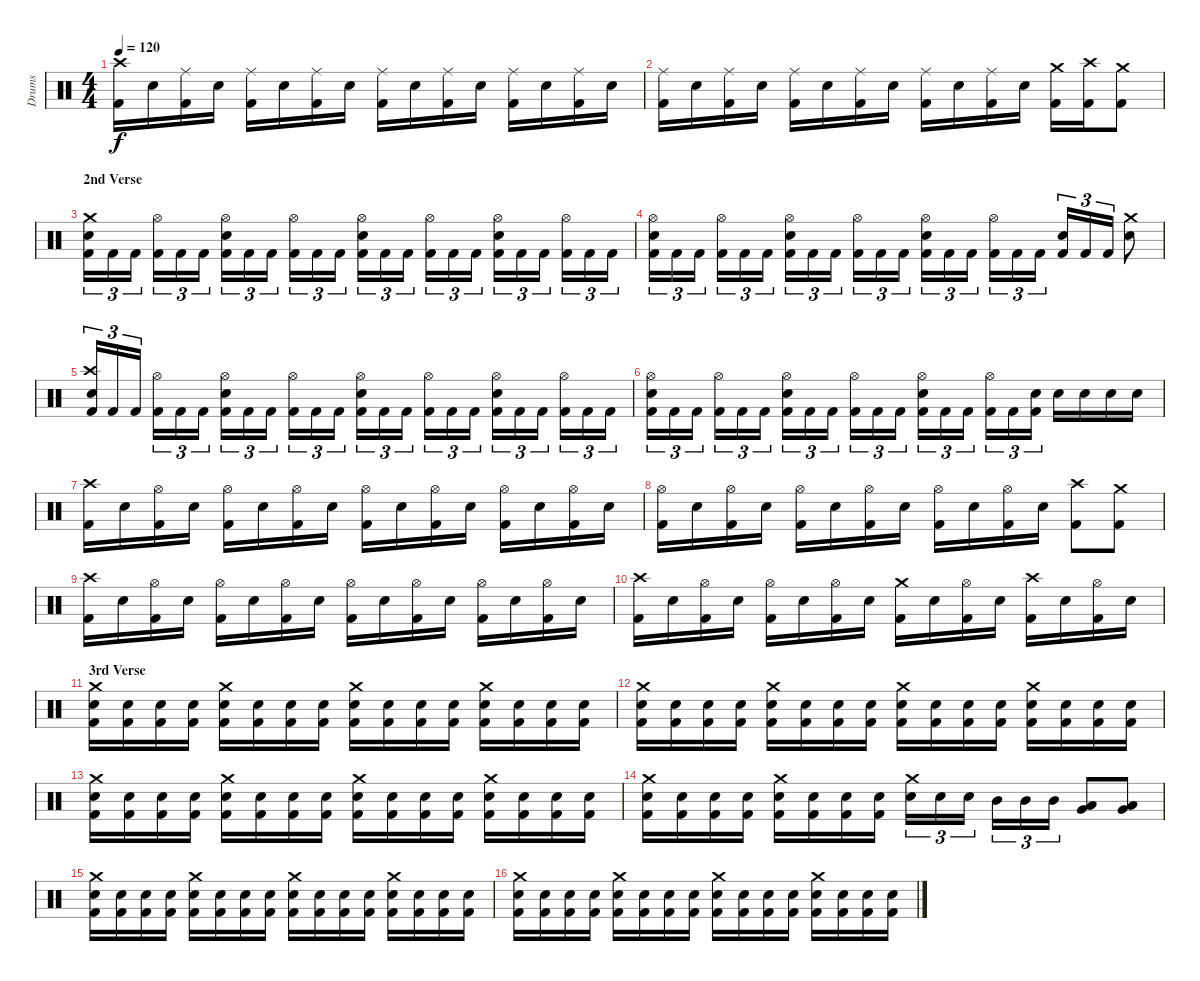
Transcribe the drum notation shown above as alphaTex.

\track ("Drums" "Drums") {instrument percussion}
\staff {score}
\articulation defaults
\ts (4 4)
\tempo 120
\clef neutral
\ks c
("Kick (hit) 2" "Crash high (hit)").16{dy f} "Electric Snare (hit)".16 ("Kick (hit) 2" "Ride (middle)").16 "Electric Snare (hit)".16 ("Kick (hit) 2" "Ride (middle)").16 "Electric Snare (hit)".16 ("Kick (hit) 2" "Ride (middle)").16 "Electric Snare (hit)".16 ("Kick (hit) 2" "Ride (middle)").16 "Electric Snare (hit)".16 ("Kick (hit) 2" "Ride (middle)").16 "Electric Snare (hit)".16 ("Kick (hit) 2" "Ride (middle)").16 "Electric Snare (hit)".16 ("Kick (hit) 2" "Ride (middle)").16 "Electric Snare (hit)".16 |
("Kick (hit) 2" "Ride (middle)").16 "Electric Snare (hit)".16 ("Kick (hit) 2" "Ride (middle)").16 "Electric Snare (hit)".16 ("Kick (hit) 2" "Ride (middle)").16 "Electric Snare (hit)".16 ("Kick (hit) 2" "Ride (middle)").16 "Electric Snare (hit)".16 ("Kick (hit) 2" "Ride (middle)").16 "Electric Snare (hit)".16 ("Kick (hit) 2" "Ride (middle)").16 "Electric Snare (hit)".16 ("Kick (hit) 2" "Crash medium (hit)").16 ("Kick (hit) 2" "Crash high (hit)").16 ("Kick (hit) 2" "Crash medium (hit)").8 |
\section ("" "2nd Verse")
("Kick (hit) 2" "Electric Snare (hit)" "Crash medium (hit)").16{tu (3 2)} "Kick (hit) 2".16{tu (3 2)} "Kick (hit) 2".16{tu (3 2)} ("Kick (hit) 2" "Hi-Hat (open)").16{tu (3 2)} "Kick (hit) 2".16{tu (3 2)} "Kick (hit) 2".16{tu (3 2)} ("Kick (hit) 2" "Electric Snare (hit)" "Hi-Hat (open)").16{tu (3 2)} "Kick (hit) 2".16{tu (3 2)} "Kick (hit) 2".16{tu (3 2)} ("Kick (hit) 2" "Hi-Hat (open)").16{tu (3 2)} "Kick (hit) 2".16{tu (3 2)} "Kick (hit) 2".16{tu (3 2)} ("Kick (hit) 2" "Electric Snare (hit)" "Hi-Hat (open)").16{tu (3 2)} "Kick (hit) 2".16{tu (3 2)} "Kick (hit) 2".16{tu (3 2)} ("Kick (hit) 2" "Hi-Hat (open)").16{tu (3 2)} "Kick (hit) 2".16{tu (3 2)} "Kick (hit) 2".16{tu (3 2)} ("Kick (hit) 2" "Electric Snare (hit)" "Hi-Hat (open)").16{tu (3 2)} "Kick (hit) 2".16{tu (3 2)} "Kick (hit) 2".16{tu (3 2)} ("Kick (hit) 2" "Hi-Hat (open)").16{tu (3 2)} "Kick (hit) 2".16{tu (3 2)} "Kick (hit) 2".16{tu (3 2)} |
("Kick (hit) 2" "Electric Snare (hit)" "Hi-Hat (open)").16{tu (3 2)} "Kick (hit) 2".16{tu (3 2)} "Kick (hit) 2".16{tu (3 2)} ("Kick (hit) 2" "Hi-Hat (open)").16{tu (3 2)} "Kick (hit) 2".16{tu (3 2)} "Kick (hit) 2".16{tu (3 2)} ("Kick (hit) 2" "Electric Snare (hit)" "Hi-Hat (open)").16{tu (3 2)} "Kick (hit) 2".16{tu (3 2)} "Kick (hit) 2".16{tu (3 2)} ("Kick (hit) 2" "Hi-Hat (open)").16{tu (3 2)} "Kick (hit) 2".16{tu (3 2)} "Kick (hit) 2".16{tu (3 2)} ("Kick (hit) 2" "Electric Snare (hit)" "Hi-Hat (open)").16{tu (3 2)} "Kick (hit) 2".16{tu (3 2)} "Kick (hit) 2".16{tu (3 2)} ("Kick (hit) 2" "Hi-Hat (open)").16{tu (3 2)} "Kick (hit) 2".16{tu (3 2)} "Kick (hit) 2".16{tu (3 2)} ("Kick (hit) 2" "Electric Snare (hit)").16{tu (3 2)} "Kick (hit) 2".16{tu (3 2)} "Kick (hit) 2".16{tu (3 2)} ("Electric Snare (hit)" "Crash medium (hit)").8 |
("Kick (hit) 2" "Electric Snare (hit)" "Crash high (hit)").16{tu (3 2)} "Kick (hit) 2".16{tu (3 2)} "Kick (hit) 2".16{tu (3 2)} ("Kick (hit) 2" "Hi-Hat (open)").16{tu (3 2)} "Kick (hit) 2".16{tu (3 2)} "Kick (hit) 2".16{tu (3 2)} ("Kick (hit) 2" "Electric Snare (hit)" "Hi-Hat (open)").16{tu (3 2)} "Kick (hit) 2".16{tu (3 2)} "Kick (hit) 2".16{tu (3 2)} ("Kick (hit) 2" "Hi-Hat (open)").16{tu (3 2)} "Kick (hit) 2".16{tu (3 2)} "Kick (hit) 2".16{tu (3 2)} ("Kick (hit) 2" "Electric Snare (hit)" "Hi-Hat (open)").16{tu (3 2)} "Kick (hit) 2".16{tu (3 2)} "Kick (hit) 2".16{tu (3 2)} ("Kick (hit) 2" "Hi-Hat (open)").16{tu (3 2)} "Kick (hit) 2".16{tu (3 2)} "Kick (hit) 2".16{tu (3 2)} ("Kick (hit) 2" "Electric Snare (hit)" "Hi-Hat (open)").16{tu (3 2)} "Kick (hit) 2".16{tu (3 2)} "Kick (hit) 2".16{tu (3 2)} ("Kick (hit) 2" "Hi-Hat (open)").16{tu (3 2)} "Kick (hit) 2".16{tu (3 2)} "Kick (hit) 2".16{tu (3 2)} |
("Kick (hit) 2" "Electric Snare (hit)" "Hi-Hat (open)").16{tu (3 2)} "Kick (hit) 2".16{tu (3 2)} "Kick (hit) 2".16{tu (3 2)} ("Kick (hit) 2" "Hi-Hat (open)").16{tu (3 2)} "Kick (hit) 2".16{tu (3 2)} "Kick (hit) 2".16{tu (3 2)} ("Kick (hit) 2" "Electric Snare (hit)" "Hi-Hat (open)").16{tu (3 2)} "Kick (hit) 2".16{tu (3 2)} "Kick (hit) 2".16{tu (3 2)} ("Kick (hit) 2" "Hi-Hat (open)").16{tu (3 2)} "Kick (hit) 2".16{tu (3 2)} "Kick (hit) 2".16{tu (3 2)} ("Kick (hit) 2" "Electric Snare (hit)" "Hi-Hat (open)").16{tu (3 2)} "Kick (hit) 2".16{tu (3 2)} "Kick (hit) 2".16{tu (3 2)} ("Kick (hit) 2" "Hi-Hat (open)").16{tu (3 2)} "Kick (hit) 2".16{tu (3 2)} ("Kick (hit) 2" "Electric Snare (hit)").16{tu (3 2)} "Electric Snare (hit)".16 "Electric Snare (hit)".16 "Electric Snare (hit)".16 "Electric Snare (hit)".16 |
("Kick (hit) 2" "Crash high (hit)").16 "Electric Snare (hit)".16 ("Kick (hit) 2" "Hi-Hat (open)").16 "Electric Snare (hit)".16 ("Kick (hit) 2" "Hi-Hat (open)").16 "Electric Snare (hit)".16 ("Kick (hit) 2" "Hi-Hat (open)").16 "Electric Snare (hit)".16 ("Kick (hit) 2" "Hi-Hat (open)").16 "Electric Snare (hit)".16 ("Kick (hit) 2" "Hi-Hat (open)").16 "Electric Snare (hit)".16 ("Kick (hit) 2" "Hi-Hat (open)").16 "Electric Snare (hit)".16 ("Kick (hit) 2" "Hi-Hat (open)").16 "Electric Snare (hit)".16 |
("Kick (hit) 2" "Hi-Hat (open)").16 "Electric Snare (hit)".16 ("Kick (hit) 2" "Hi-Hat (open)").16 "Electric Snare (hit)".16 ("Kick (hit) 2" "Hi-Hat (open)").16 "Electric Snare (hit)".16 ("Kick (hit) 2" "Hi-Hat (open)").16 "Electric Snare (hit)".16 ("Kick (hit) 2" "Hi-Hat (open)").16 "Electric Snare (hit)".16 ("Kick (hit) 2" "Hi-Hat (open)").16 "Electric Snare (hit)".16 ("Kick (hit) 2" "Crash high (hit)").8 ("Kick (hit) 2" "Crash medium (hit)").8 |
("Kick (hit) 2" "Crash high (hit)").16 "Electric Snare (hit)".16 ("Kick (hit) 2" "Hi-Hat (open)").16 "Electric Snare (hit)".16 ("Kick (hit) 2" "Hi-Hat (open)").16 "Electric Snare (hit)".16 ("Kick (hit) 2" "Hi-Hat (open)").16 "Electric Snare (hit)".16 ("Kick (hit) 2" "Hi-Hat (open)").16 "Electric Snare (hit)".16 ("Kick (hit) 2" "Hi-Hat (open)").16 "Electric Snare (hit)".16 ("Kick (hit) 2" "Hi-Hat (open)").16 "Electric Snare (hit)".16 ("Kick (hit) 2" "Hi-Hat (open)").16 "Electric Snare (hit)".16 |
("Kick (hit) 2" "Crash high (hit)").16 "Electric Snare (hit)".16 ("Kick (hit) 2" "Hi-Hat (open)").16 "Electric Snare (hit)".16 ("Kick (hit) 2" "Hi-Hat (open)").16 "Electric Snare (hit)".16 ("Kick (hit) 2" "Hi-Hat (open)").16 "Electric Snare (hit)".16 ("Kick (hit) 2" "Crash medium (hit)").16 "Electric Snare (hit)".16 ("Kick (hit) 2" "Hi-Hat (open)").16 "Electric Snare (hit)".16 ("Kick (hit) 2" "Crash high (hit)").16 "Electric Snare (hit)".16 ("Kick (hit) 2" "Hi-Hat (open)").16 "Electric Snare (hit)".16 |
\section ("" "3rd Verse")
("Kick (hit) 2" "Electric Snare (hit)" "Crash medium (hit)").16 ("Kick (hit) 2" "Electric Snare (hit)").16 ("Kick (hit) 2" "Electric Snare (hit)").16 ("Kick (hit) 2" "Electric Snare (hit)").16 ("Kick (hit) 2" "Electric Snare (hit)" "Crash medium (hit)").16 ("Kick (hit) 2" "Electric Snare (hit)").16 ("Kick (hit) 2" "Electric Snare (hit)").16 ("Kick (hit) 2" "Electric Snare (hit)").16 ("Kick (hit) 2" "Electric Snare (hit)" "Crash medium (hit)").16 ("Kick (hit) 2" "Electric Snare (hit)").16 ("Kick (hit) 2" "Electric Snare (hit)").16 ("Kick (hit) 2" "Electric Snare (hit)").16 ("Kick (hit) 2" "Electric Snare (hit)" "Crash medium (hit)").16 ("Kick (hit) 2" "Electric Snare (hit)").16 ("Kick (hit) 2" "Electric Snare (hit)").16 ("Kick (hit) 2" "Electric Snare (hit)").16 |
("Kick (hit) 2" "Electric Snare (hit)" "Crash medium (hit)").16 ("Kick (hit) 2" "Electric Snare (hit)").16 ("Kick (hit) 2" "Electric Snare (hit)").16 ("Kick (hit) 2" "Electric Snare (hit)").16 ("Kick (hit) 2" "Electric Snare (hit)" "Crash medium (hit)").16 ("Kick (hit) 2" "Electric Snare (hit)").16 ("Kick (hit) 2" "Electric Snare (hit)").16 ("Kick (hit) 2" "Electric Snare (hit)").16 ("Kick (hit) 2" "Electric Snare (hit)" "Crash medium (hit)").16 ("Kick (hit) 2" "Electric Snare (hit)").16 ("Kick (hit) 2" "Electric Snare (hit)").16 ("Kick (hit) 2" "Electric Snare (hit)").16 ("Kick (hit) 2" "Electric Snare (hit)" "Crash medium (hit)").16 ("Kick (hit) 2" "Electric Snare (hit)").16 ("Kick (hit) 2" "Electric Snare (hit)").16 ("Kick (hit) 2" "Electric Snare (hit)").16 |
("Kick (hit) 2" "Electric Snare (hit)" "Crash medium (hit)").16 ("Kick (hit) 2" "Electric Snare (hit)").16 ("Kick (hit) 2" "Electric Snare (hit)").16 ("Kick (hit) 2" "Electric Snare (hit)").16 ("Kick (hit) 2" "Electric Snare (hit)" "Crash medium (hit)").16 ("Kick (hit) 2" "Electric Snare (hit)").16 ("Kick (hit) 2" "Electric Snare (hit)").16 ("Kick (hit) 2" "Electric Snare (hit)").16 ("Kick (hit) 2" "Electric Snare (hit)" "Crash medium (hit)").16 ("Kick (hit) 2" "Electric Snare (hit)").16 ("Kick (hit) 2" "Electric Snare (hit)").16 ("Kick (hit) 2" "Electric Snare (hit)").16 ("Kick (hit) 2" "Electric Snare (hit)" "Crash medium (hit)").16 ("Kick (hit) 2" "Electric Snare (hit)").16 ("Kick (hit) 2" "Electric Snare (hit)").16 ("Kick (hit) 2" "Electric Snare (hit)").16 |
("Kick (hit) 2" "Electric Snare (hit)" "Crash medium (hit)").16 ("Kick (hit) 2" "Electric Snare (hit)").16 ("Kick (hit) 2" "Electric Snare (hit)").16 ("Kick (hit) 2" "Electric Snare (hit)").16 ("Kick (hit) 2" "Electric Snare (hit)" "Crash medium (hit)").16 ("Kick (hit) 2" "Electric Snare (hit)").16 ("Kick (hit) 2" "Electric Snare (hit)").16 ("Kick (hit) 2" "Electric Snare (hit)").16 ("Electric Snare (hit)" "Crash medium (hit)").16{tu (3 2)} "Electric Snare (hit)".16{tu (3 2)} "Electric Snare (hit)".16{tu (3 2)} "Mid Tom (hit)".16{tu (3 2)} "Mid Tom (hit)".16{tu (3 2)} "Mid Tom (hit)".16{tu (3 2)} ("Low Tom (hit)" "Very Low Tom (hit)").8 ("Low Tom (hit)" "Very Low Tom (hit)").8 |
("Kick (hit) 2" "Electric Snare (hit)" "Crash medium (hit)").16 ("Kick (hit) 2" "Electric Snare (hit)").16 ("Kick (hit) 2" "Electric Snare (hit)").16 ("Kick (hit) 2" "Electric Snare (hit)").16 ("Kick (hit) 2" "Electric Snare (hit)" "Crash medium (hit)").16 ("Kick (hit) 2" "Electric Snare (hit)").16 ("Kick (hit) 2" "Electric Snare (hit)").16 ("Kick (hit) 2" "Electric Snare (hit)").16 ("Kick (hit) 2" "Electric Snare (hit)" "Crash medium (hit)").16 ("Kick (hit) 2" "Electric Snare (hit)").16 ("Kick (hit) 2" "Electric Snare (hit)").16 ("Kick (hit) 2" "Electric Snare (hit)").16 ("Kick (hit) 2" "Electric Snare (hit)" "Crash medium (hit)").16 ("Kick (hit) 2" "Electric Snare (hit)").16 ("Kick (hit) 2" "Electric Snare (hit)").16 ("Kick (hit) 2" "Electric Snare (hit)").16 |
("Kick (hit) 2" "Electric Snare (hit)" "Crash medium (hit)").16 ("Kick (hit) 2" "Electric Snare (hit)").16 ("Kick (hit) 2" "Electric Snare (hit)").16 ("Kick (hit) 2" "Electric Snare (hit)").16 ("Kick (hit) 2" "Electric Snare (hit)" "Crash medium (hit)").16 ("Kick (hit) 2" "Electric Snare (hit)").16 ("Kick (hit) 2" "Electric Snare (hit)").16 ("Kick (hit) 2" "Electric Snare (hit)").16 ("Kick (hit) 2" "Electric Snare (hit)" "Crash medium (hit)").16 ("Kick (hit) 2" "Electric Snare (hit)").16 ("Kick (hit) 2" "Electric Snare (hit)").16 ("Kick (hit) 2" "Electric Snare (hit)").16 ("Kick (hit) 2" "Electric Snare (hit)" "Crash medium (hit)").16 ("Kick (hit) 2" "Electric Snare (hit)").16 ("Kick (hit) 2" "Electric Snare (hit)").16 ("Kick (hit) 2" "Electric Snare (hit)").16
